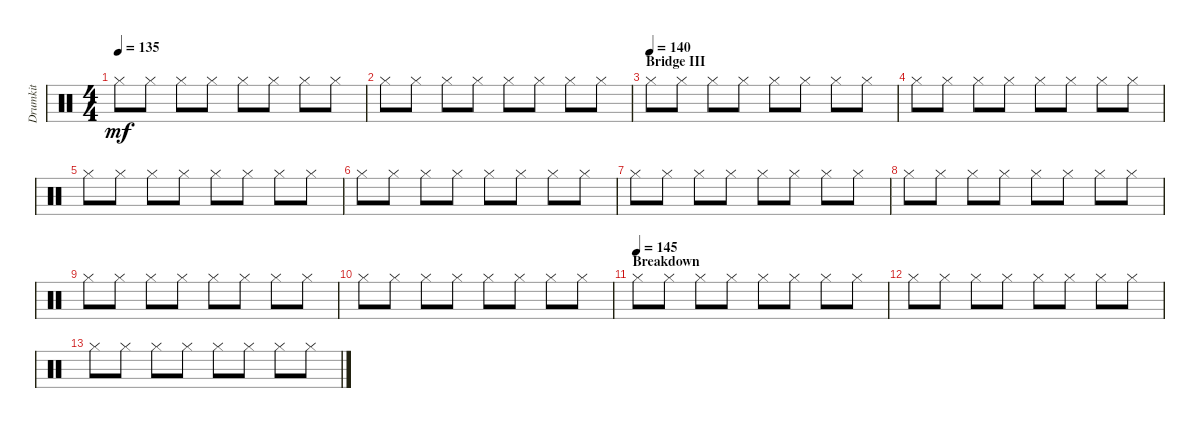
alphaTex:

\track ("Drumkit" "Drumkit") {mute instrument percussion}
\staff {score}
\articulation defaults
\ts (4 4)
\tempo 135
\clef neutral
\ks c "Hi-Hat (closed)".8{dy mf} "Hi-Hat (closed)".8 "Hi-Hat (closed)".8 "Hi-Hat (closed)".8 "Hi-Hat (closed)".8 "Hi-Hat (closed)".8 "Hi-Hat (closed)".8 "Hi-Hat (closed)".8
|
"Hi-Hat (closed)".8 "Hi-Hat (closed)".8 "Hi-Hat (closed)".8 "Hi-Hat (closed)".8 "Hi-Hat (closed)".8 "Hi-Hat (closed)".8 "Hi-Hat (closed)".8 "Hi-Hat (closed)".8 |
\section ("" "Bridge III")
\tempo (140)
"Hi-Hat (closed)".8 "Hi-Hat (closed)".8 "Hi-Hat (closed)".8 "Hi-Hat (closed)".8 "Hi-Hat (closed)".8 "Hi-Hat (closed)".8 "Hi-Hat (closed)".8 "Hi-Hat (closed)".8 |
"Hi-Hat (closed)".8 "Hi-Hat (closed)".8 "Hi-Hat (closed)".8 "Hi-Hat (closed)".8 "Hi-Hat (closed)".8 "Hi-Hat (closed)".8 "Hi-Hat (closed)".8 "Hi-Hat (closed)".8 |
"Hi-Hat (closed)".8 "Hi-Hat (closed)".8 "Hi-Hat (closed)".8 "Hi-Hat (closed)".8 "Hi-Hat (closed)".8 "Hi-Hat (closed)".8 "Hi-Hat (closed)".8 "Hi-Hat (closed)".8 |
"Hi-Hat (closed)".8 "Hi-Hat (closed)".8 "Hi-Hat (closed)".8 "Hi-Hat (closed)".8 "Hi-Hat (closed)".8 "Hi-Hat (closed)".8 "Hi-Hat (closed)".8 "Hi-Hat (closed)".8 |
"Hi-Hat (closed)".8 "Hi-Hat (closed)".8 "Hi-Hat (closed)".8 "Hi-Hat (closed)".8 "Hi-Hat (closed)".8 "Hi-Hat (closed)".8 "Hi-Hat (closed)".8 "Hi-Hat (closed)".8 |
"Hi-Hat (closed)".8 "Hi-Hat (closed)".8 "Hi-Hat (closed)".8 "Hi-Hat (closed)".8 "Hi-Hat (closed)".8 "Hi-Hat (closed)".8 "Hi-Hat (closed)".8 "Hi-Hat (closed)".8 |
"Hi-Hat (closed)".8 "Hi-Hat (closed)".8 "Hi-Hat (closed)".8 "Hi-Hat (closed)".8 "Hi-Hat (closed)".8 "Hi-Hat (closed)".8 "Hi-Hat (closed)".8 "Hi-Hat (closed)".8 |
"Hi-Hat (closed)".8 "Hi-Hat (closed)".8 "Hi-Hat (closed)".8 "Hi-Hat (closed)".8 "Hi-Hat (closed)".8 "Hi-Hat (closed)".8 "Hi-Hat (closed)".8 "Hi-Hat (closed)".8 |
\section ("" "Breakdown")
\tempo (145)
"Hi-Hat (closed)".8 "Hi-Hat (closed)".8 "Hi-Hat (closed)".8 "Hi-Hat (closed)".8 "Hi-Hat (closed)".8 "Hi-Hat (closed)".8 "Hi-Hat (closed)".8 "Hi-Hat (closed)".8 |
"Hi-Hat (closed)".8 "Hi-Hat (closed)".8 "Hi-Hat (closed)".8 "Hi-Hat (closed)".8 "Hi-Hat (closed)".8 "Hi-Hat (closed)".8 "Hi-Hat (closed)".8 "Hi-Hat (closed)".8 |
"Hi-Hat (closed)".8 "Hi-Hat (closed)".8 "Hi-Hat (closed)".8 "Hi-Hat (closed)".8 "Hi-Hat (closed)".8 "Hi-Hat (closed)".8 "Hi-Hat (closed)".8 "Hi-Hat (closed)".8
